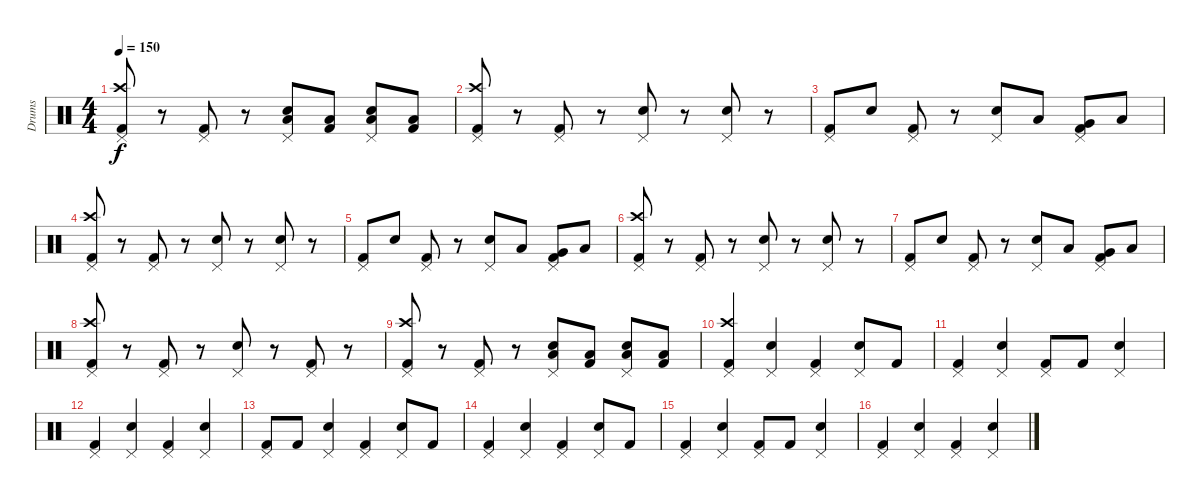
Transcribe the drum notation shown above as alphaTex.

\track ("Drums" "Drums") {instrument percussion}
\staff {score}
\articulation defaults
\ts (4 4)
\tempo 150
\clef neutral
\ks c
("Pedal Hi-Hat (hit)" "Crash high (hit)" "Kick (hit) 2").8{dy f} r.8 ("Pedal Hi-Hat (hit)" "Kick (hit) 2").8 r.8 ("Pedal Hi-Hat (hit)" "Low Floor Tom (hit)" "Electric Snare (hit)").8 ("Low Floor Tom (hit)" "Kick (hit) 2").8 ("Pedal Hi-Hat (hit)" "Low Floor Tom (hit)" "Electric Snare (hit)").8 ("Low Floor Tom (hit)" "Kick (hit) 2").8 |
("Pedal Hi-Hat (hit)" "Crash high (hit)" "Kick (hit) 2").8 r.8 ("Pedal Hi-Hat (hit)" "Kick (hit) 2").8 r.8 ("Pedal Hi-Hat (hit)" "Electric Snare (hit)").8 r.8 ("Pedal Hi-Hat (hit)" "Electric Snare (hit)").8 r.8 |
("Pedal Hi-Hat (hit)" "Kick (hit) 2").8 "Electric Snare (hit)".8 ("Pedal Hi-Hat (hit)" "Kick (hit) 2").8 r.8 ("Pedal Hi-Hat (hit)" "Electric Snare (hit)").8 "Low Tom (hit)".8 ("Pedal Hi-Hat (hit)" "Very Low Tom (hit)" "Kick (hit) 2").8 "Low Floor Tom (hit)".8 |
("Pedal Hi-Hat (hit)" "Crash high (hit)" "Kick (hit) 2").8 r.8 ("Pedal Hi-Hat (hit)" "Kick (hit) 2").8 r.8 ("Pedal Hi-Hat (hit)" "Electric Snare (hit)").8 r.8 ("Pedal Hi-Hat (hit)" "Electric Snare (hit)").8 r.8 |
("Pedal Hi-Hat (hit)" "Kick (hit) 2").8 "Electric Snare (hit)".8 ("Pedal Hi-Hat (hit)" "Kick (hit) 2").8 r.8 ("Pedal Hi-Hat (hit)" "Electric Snare (hit)").8 "Low Tom (hit)".8 ("Pedal Hi-Hat (hit)" "Very Low Tom (hit)" "Kick (hit) 2").8 "Low Floor Tom (hit)".8 |
("Pedal Hi-Hat (hit)" "Crash high (hit)" "Kick (hit) 2").8 r.8 ("Pedal Hi-Hat (hit)" "Kick (hit) 2").8 r.8 ("Pedal Hi-Hat (hit)" "Electric Snare (hit)").8 r.8 ("Pedal Hi-Hat (hit)" "Electric Snare (hit)").8 r.8 |
("Pedal Hi-Hat (hit)" "Kick (hit) 2").8 "Electric Snare (hit)".8 ("Pedal Hi-Hat (hit)" "Kick (hit) 2").8 r.8 ("Pedal Hi-Hat (hit)" "Electric Snare (hit)").8 "Low Tom (hit)".8 ("Pedal Hi-Hat (hit)" "Very Low Tom (hit)" "Kick (hit) 2").8 "Low Floor Tom (hit)".8 |
("Pedal Hi-Hat (hit)" "Crash high (hit)" "Kick (hit) 2").8 r.8 ("Pedal Hi-Hat (hit)" "Kick (hit) 2").8 r.8 ("Pedal Hi-Hat (hit)" "Electric Snare (hit)").8 r.8 ("Pedal Hi-Hat (hit)" "Kick (hit) 2").8 r.8 |
("Pedal Hi-Hat (hit)" "Crash high (hit)" "Kick (hit) 2").8 r.8 ("Pedal Hi-Hat (hit)" "Kick (hit) 2").8 r.8 ("Pedal Hi-Hat (hit)" "Low Floor Tom (hit)" "Electric Snare (hit)").8 ("Low Floor Tom (hit)" "Kick (hit) 2").8 ("Pedal Hi-Hat (hit)" "Low Floor Tom (hit)" "Electric Snare (hit)").8 ("Low Floor Tom (hit)" "Kick (hit) 2").8 |
("Pedal Hi-Hat (hit)" "Crash high (hit)" "Kick (hit) 2").4 ("Pedal Hi-Hat (hit)" "Electric Snare (hit)").4 ("Pedal Hi-Hat (hit)" "Kick (hit) 2").4 ("Pedal Hi-Hat (hit)" "Electric Snare (hit)").8 "Kick (hit) 2".8 |
("Pedal Hi-Hat (hit)" "Kick (hit) 2").4 ("Pedal Hi-Hat (hit)" "Electric Snare (hit)").4 ("Pedal Hi-Hat (hit)" "Kick (hit) 2").8 "Kick (hit) 2".8 ("Pedal Hi-Hat (hit)" "Electric Snare (hit)").4 |
("Pedal Hi-Hat (hit)" "Kick (hit) 2").4 ("Pedal Hi-Hat (hit)" "Electric Snare (hit)").4 ("Pedal Hi-Hat (hit)" "Kick (hit) 2").4 ("Pedal Hi-Hat (hit)" "Electric Snare (hit)").4 |
("Pedal Hi-Hat (hit)" "Kick (hit) 2").8 "Kick (hit) 2".8 ("Pedal Hi-Hat (hit)" "Electric Snare (hit)").4 ("Pedal Hi-Hat (hit)" "Kick (hit) 2").4 ("Pedal Hi-Hat (hit)" "Electric Snare (hit)").8 "Kick (hit) 2".8 |
("Pedal Hi-Hat (hit)" "Kick (hit) 2").4 ("Pedal Hi-Hat (hit)" "Electric Snare (hit)").4 ("Pedal Hi-Hat (hit)" "Kick (hit) 2").4 ("Pedal Hi-Hat (hit)" "Electric Snare (hit)").8 "Kick (hit) 2".8 |
("Pedal Hi-Hat (hit)" "Kick (hit) 2").4 ("Pedal Hi-Hat (hit)" "Electric Snare (hit)").4 ("Pedal Hi-Hat (hit)" "Kick (hit) 2").8 "Kick (hit) 2".8 ("Pedal Hi-Hat (hit)" "Electric Snare (hit)").4 |
("Pedal Hi-Hat (hit)" "Kick (hit) 2").4 ("Pedal Hi-Hat (hit)" "Electric Snare (hit)").4 ("Pedal Hi-Hat (hit)" "Kick (hit) 2").4 ("Pedal Hi-Hat (hit)" "Electric Snare (hit)").4
